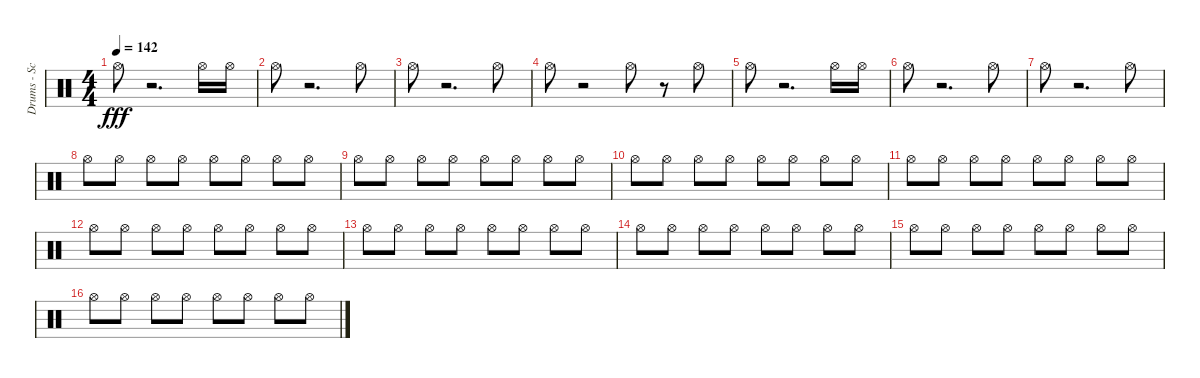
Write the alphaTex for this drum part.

\track ("Drums - Scott" "Drums - Sc") {instrument percussion}
\staff {score}
\articulation defaults
\ts (4 4)
\tempo 142
\clef neutral
\ks c "Hi-Hat (open)".8{dy fff}
r.2{d} "Hi-Hat (open)".16 "Hi-Hat (open)".16 |
"Hi-Hat (open)".8 r.2{d} "Hi-Hat (open)".8 |
"Hi-Hat (open)".8 r.2{d} "Hi-Hat (open)".8 |
"Hi-Hat (open)".8 r.2 "Hi-Hat (open)".8 r.8 "Hi-Hat (open)".8 |
"Hi-Hat (open)".8 r.2{d} "Hi-Hat (open)".16 "Hi-Hat (open)".16 |
"Hi-Hat (open)".8 r.2{d} "Hi-Hat (open)".8 |
"Hi-Hat (open)".8 r.2{d} "Hi-Hat (open)".8 |
"Hi-Hat (open)".8 "Hi-Hat (open)".8 "Hi-Hat (open)".8 "Hi-Hat (open)".8 "Hi-Hat (open)".8 "Hi-Hat (open)".8 "Hi-Hat (open)".8 "Hi-Hat (open)".8 |
"Hi-Hat (open)".8 "Hi-Hat (open)".8 "Hi-Hat (open)".8 "Hi-Hat (open)".8 "Hi-Hat (open)".8 "Hi-Hat (open)".8 "Hi-Hat (open)".8 "Hi-Hat (open)".8 |
"Hi-Hat (open)".8 "Hi-Hat (open)".8 "Hi-Hat (open)".8 "Hi-Hat (open)".8 "Hi-Hat (open)".8 "Hi-Hat (open)".8 "Hi-Hat (open)".8 "Hi-Hat (open)".8 |
"Hi-Hat (open)".8 "Hi-Hat (open)".8 "Hi-Hat (open)".8 "Hi-Hat (open)".8 "Hi-Hat (open)".8 "Hi-Hat (open)".8 "Hi-Hat (open)".8 "Hi-Hat (open)".8 |
"Hi-Hat (open)".8 "Hi-Hat (open)".8 "Hi-Hat (open)".8 "Hi-Hat (open)".8 "Hi-Hat (open)".8 "Hi-Hat (open)".8 "Hi-Hat (open)".8 "Hi-Hat (open)".8 |
"Hi-Hat (open)".8 "Hi-Hat (open)".8 "Hi-Hat (open)".8 "Hi-Hat (open)".8 "Hi-Hat (open)".8 "Hi-Hat (open)".8 "Hi-Hat (open)".8 "Hi-Hat (open)".8 |
"Hi-Hat (open)".8 "Hi-Hat (open)".8 "Hi-Hat (open)".8 "Hi-Hat (open)".8 "Hi-Hat (open)".8 "Hi-Hat (open)".8 "Hi-Hat (open)".8 "Hi-Hat (open)".8 |
"Hi-Hat (open)".8 "Hi-Hat (open)".8 "Hi-Hat (open)".8 "Hi-Hat (open)".8 "Hi-Hat (open)".8 "Hi-Hat (open)".8 "Hi-Hat (open)".8 "Hi-Hat (open)".8 |
"Hi-Hat (open)".8 "Hi-Hat (open)".8 "Hi-Hat (open)".8 "Hi-Hat (open)".8 "Hi-Hat (open)".8 "Hi-Hat (open)".8 "Hi-Hat (open)".8 "Hi-Hat (open)".8
